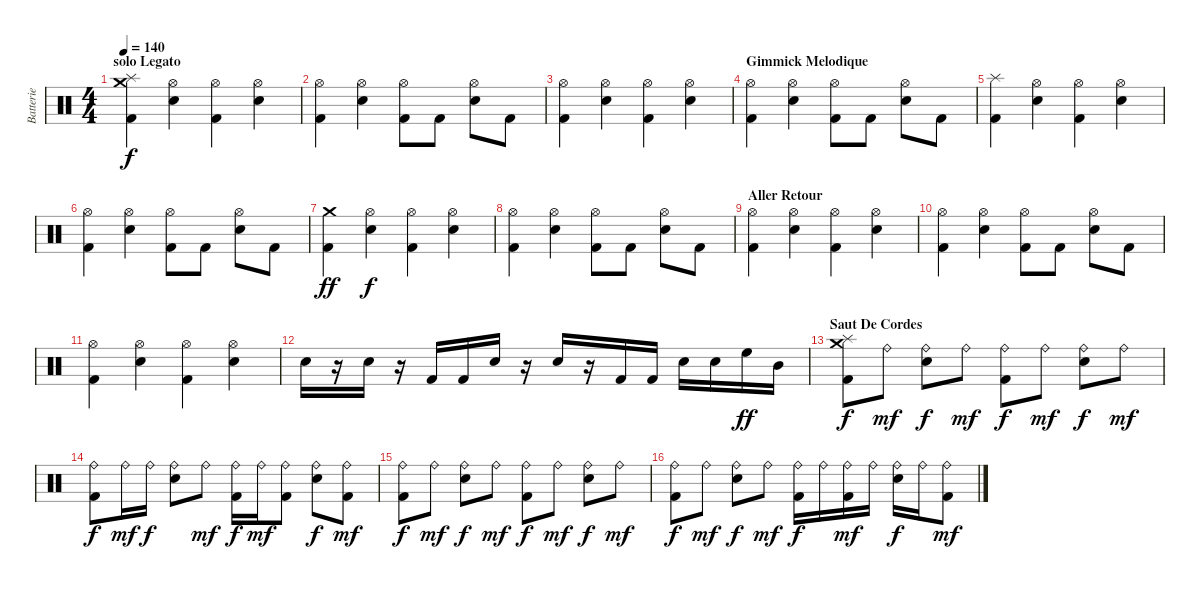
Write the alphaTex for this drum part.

\track ("Batterie" "Batterie") {instrument percussion}
\staff {score}
\articulation defaults
\ts (4 4)
\section ("" "solo Legato")
\tempo 140
\clef neutral
\ks c
("Kick (hit) 2" "Splash (hit)" "Crash medium (hit)").4{dy f} ("Snare (hit) 2" "Hi-Hat (open)").4 ("Kick (hit) 2" "Hi-Hat (open)").4 ("Hi-Hat (open)" "Snare (hit) 2").4 |
("Hi-Hat (open)" "Kick (hit) 2").4 ("Hi-Hat (open)" "Snare (hit) 2").4 ("Kick (hit) 2" "Hi-Hat (open)").8 "Kick (hit) 2".8 ("Snare (hit) 2" "Hi-Hat (open)").8 "Kick (hit) 2".8 |
("Kick (hit) 2" "Hi-Hat (open)").4 ("Hi-Hat (open)" "Snare (hit) 2").4 ("Kick (hit) 2" "Hi-Hat (open)").4 ("Snare (hit) 2" "Hi-Hat (open)").4 |
\section ("" "Gimmick Melodique")
("Kick (hit) 2" "Hi-Hat (open)").4 ("Snare (hit) 2" "Hi-Hat (open)").4 ("Hi-Hat (open)" "Kick (hit) 2").8 "Kick (hit) 2".8 ("Hi-Hat (open)" "Snare (hit) 2").8 "Kick (hit) 2".8 |
("Splash (hit)" "Kick (hit) 2").4 ("Hi-Hat (open)" "Snare (hit) 2").4 ("Hi-Hat (open)" "Kick (hit) 2").4 ("Snare (hit) 2" "Hi-Hat (open)").4 |
("Hi-Hat (open)" "Kick (hit) 2").4 ("Hi-Hat (open)" "Snare (hit) 2").4 ("Kick (hit) 2" "Hi-Hat (open)").8 "Kick (hit) 2".8 ("Hi-Hat (open)" "Snare (hit) 2").8 "Kick (hit) 2".8 |
("Kick (hit) 2" "Crash medium (hit)").4{dy ff} ("Hi-Hat (open)" "Snare (hit) 2").4{dy f} ("Hi-Hat (open)" "Kick (hit) 2").4 ("Hi-Hat (open)" "Snare (hit) 2").4 |
("Hi-Hat (open)" "Kick (hit) 2").4 ("Hi-Hat (open)" "Snare (hit) 2").4 ("Kick (hit) 2" "Hi-Hat (open)").8 "Kick (hit) 2".8 ("Hi-Hat (open)" "Snare (hit) 2").8 "Kick (hit) 2".8 |
\section ("" "Aller Retour")
("Kick (hit) 2" "Hi-Hat (open)").4 ("Hi-Hat (open)" "Snare (hit) 2").4 ("Kick (hit) 2" "Hi-Hat (open)").4 ("Snare (hit) 2" "Hi-Hat (open)").4 |
("Hi-Hat (open)" "Kick (hit) 2").4 ("Hi-Hat (open)" "Snare (hit) 2").4 ("Kick (hit) 2" "Hi-Hat (open)").8 "Kick (hit) 2".8 ("Hi-Hat (open)" "Snare (hit) 2").8 "Kick (hit) 2".8 |
("Kick (hit) 2" "Hi-Hat (open)").4 ("Hi-Hat (open)" "Snare (hit) 2").4 ("Kick (hit) 2" "Hi-Hat (open)").4 ("Snare (hit) 2" "Hi-Hat (open)").4 |
"Snare (hit) 2".16 r.16 "Snare (hit) 2".16 r.16 "Kick (hit) 2".16 "Kick (hit) 2".16 "Snare (hit) 2".16 r.16 "Snare (hit) 2".16 r.16 "Kick (hit) 2".16 "Kick (hit) 2".16 "Snare (hit) 2".16 "Snare (hit) 2".16 "High Floor Tom (hit)".16{dy ff} "Mid Tom (hit)".16 |
\section ("" "Saut De Cordes")
("Kick (hit) 2" "Crash medium (hit)" "Splash (hit)").8{dy f} "Ride (bell)".8{dy mf} ("Ride (bell)" "Snare (hit) 2").8{dy f} "Ride (bell)".8{dy mf} ("Kick (hit) 2" "Ride (bell)").8{dy f} "Ride (bell)".8{dy mf} ("Snare (hit) 2" "Ride (bell)").8{dy f} "Ride (bell)".8{dy mf} |
("Kick (hit) 2" "Ride (bell)").8{dy f} "Ride (bell)".16{dy mf} "Ride (bell)".16{dy f} ("Snare (hit) 2" "Ride (bell)").8 "Ride (bell)".8{dy mf} ("Kick (hit) 2" "Ride (bell)").16{dy f} "Ride (bell)".16{dy mf} ("Kick (hit) 2" "Ride (bell)").8 ("Snare (hit) 2" "Ride (bell)").8{dy f} ("Kick (hit) 2" "Ride (bell)").8{dy mf} |
("Ride (bell)" "Kick (hit) 2").8{dy f} "Ride (bell)".8{dy mf} ("Ride (bell)" "Snare (hit) 2").8{dy f} "Ride (bell)".8{dy mf} ("Kick (hit) 2" "Ride (bell)").8{dy f} "Ride (bell)".8{dy mf} ("Ride (bell)" "Snare (hit) 2").8{dy f} "Ride (bell)".8{dy mf} |
("Ride (bell)" "Kick (hit) 2").8{dy f} "Ride (bell)".8{dy mf} ("Snare (hit) 2" "Ride (bell)").8{dy f} "Ride (bell)".8{dy mf} ("Ride (bell)" "Kick (hit) 2").16{dy f} "Ride (bell)".16 ("Kick (hit) 2" "Ride (bell)").16{dy mf} "Ride (bell)".16 ("Ride (bell)" "Snare (hit) 2").16{dy f} "Ride (bell)".16 ("Kick (hit) 2" "Ride (bell)").8{dy mf}
